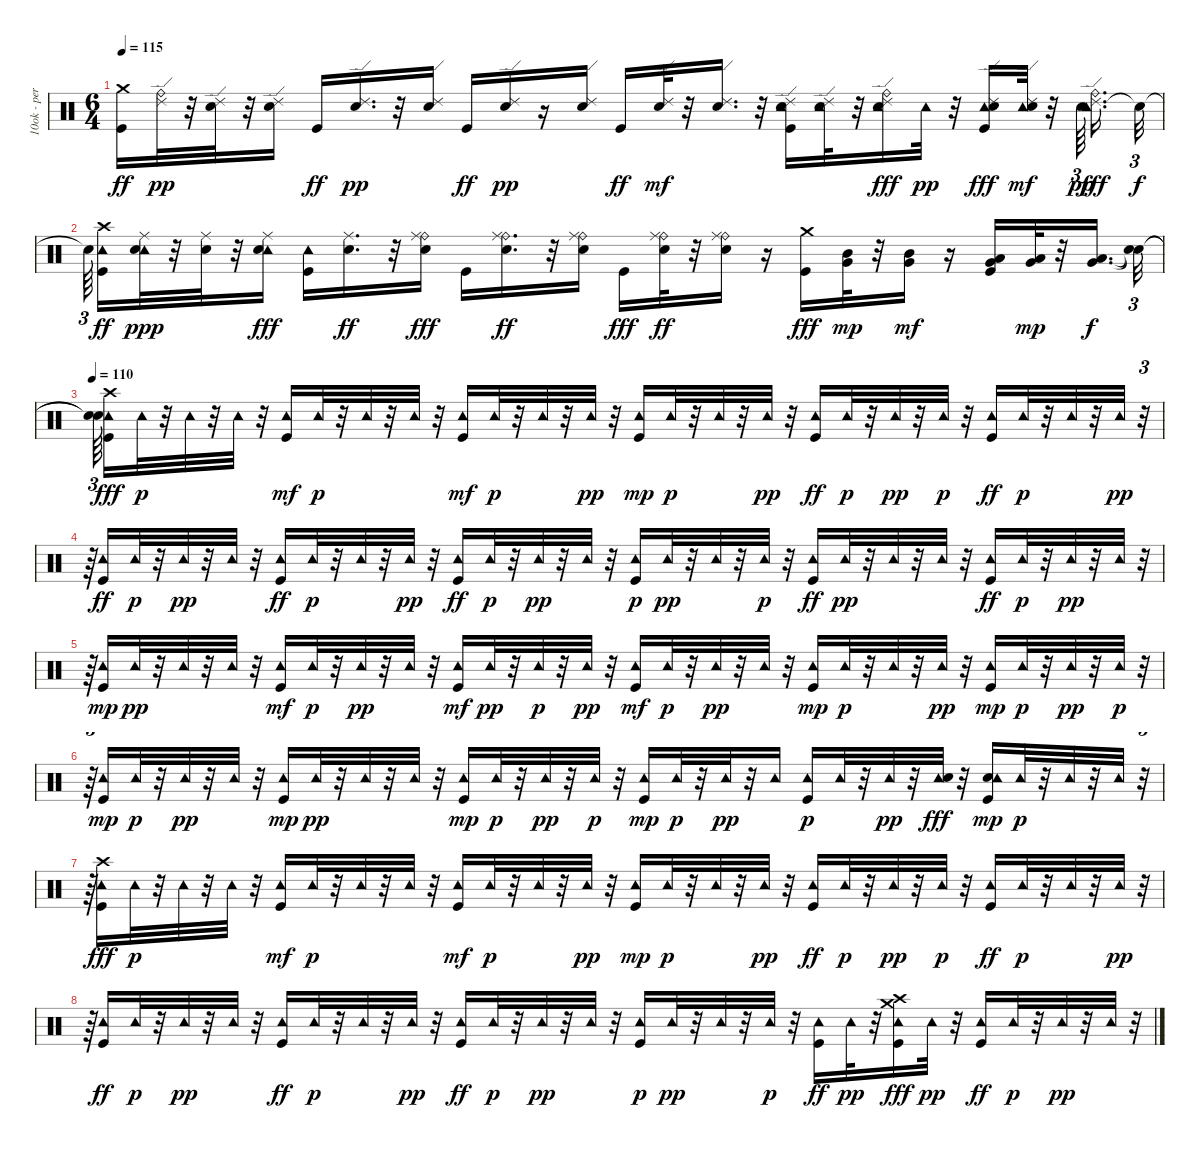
\track ("10ok - percussioni" "10ok - per") {instrument percussion}
\staff {score}
\articulation defaults
\ts (6 4)
\tempo 115
\clef neutral
\ks c
("Kick (hit)" "Crash medium (hit)").16{dy ff} ("Ride (bell)" "Ride (edge) 2").32{dy pp} r.32 ("Snare (hit) 2" "Ride (edge) 2").32 r.32 ("Snare (hit) 2" "Ride (edge) 2").16 "Kick (hit)".16{dy ff} ("Snare (hit) 2" "Ride (edge) 2").16{d dy pp} r.32 ("Snare (hit) 2" "Ride (edge) 2").16 "Kick (hit)".16{dy ff} ("Snare (hit) 2" "Ride (edge) 2").16{dy pp} r.16 ("Snare (hit) 2" "Ride (edge) 2").16 "Kick (hit)".16{dy ff} ("Snare (hit) 2" "Ride (edge) 2").32{dy mf} r.32 ("Snare (hit) 2" "Ride (edge) 2").16{d} r.32 ("Tambourine (hit)" "Snare (hit) 2" "Kick (hit)" "Ride (edge) 2").16 ("Tambourine (hit)" "Snare (hit) 2" "Ride (edge) 2").32 r.32 ("Tambourine (hit)" "Snare (hit) 2" "Ride (bell)" "Ride (edge) 2").16{dy fff} "Tambourine (hit)".32{dy pp} r.32 ("Tambourine (hit)" "Snare (hit) 2" "Kick (hit)" "Ride (edge) 2").16{dy fff} ("Tambourine (hit)" "Snare (hit) 2" "Ride (edge) 2").32{dy mf} r.32 "Snare (hit) 2".64{tu (3 2) dy pp beam splitsecondary} ("Tambourine (hit)" "Ride (bell)" "Ride (edge) 2").16{d dy fff} "Snare (hit)"{t}.32{tu (3 2) dy f} |
"Snare (hit)"{t}.64{tu (3 2) beam splitsecondary} ("Tambourine (hit)" "Kick (hit)" "Crash high (hit)").16{dy ff} ("Tambourine (hit)" "Ride (middle)" "Snare (hit) 2").32{dy ppp} r.32 ("Snare (hit) 2" "Ride (middle)").32 r.32 ("Tambourine (hit)" "Snare (hit) 2" "Ride (middle)").16{dy fff} ("Tambourine (hit)" "Kick (hit)").16 ("Snare (hit) 2" "Ride (middle)").16{d dy ff} r.32 ("Snare (hit) 2" "Ride (bell)" "Ride (middle)").16{dy fff} "Kick (hit)".16 ("Snare (hit) 2" "Ride (bell)" "Ride (middle)").16{d dy ff} r.32 ("Snare (hit) 2" "Ride (bell)" "Ride (middle)").16 "Kick (hit)".16{dy fff} ("Snare (hit) 2" "Ride (bell)" "Ride (middle)").32{dy ff} r.32 ("Snare (hit) 2" "Ride (bell)" "Ride (middle)").16 r.16 ("Kick (hit)" "Crash medium (hit)").16{dy fff} ("Mid Tom (hit)" "Very Low Tom (hit)").32{dy mp} r.32 ("Very Low Tom (hit)" "Mid Tom (hit)").16{dy mf} r.16 ("Kick (hit)" "Very Low Tom (hit)" "Low Tom (hit)").16 ("Very Low Tom (hit)" "Low Tom (hit)").32{dy mp} r.32 ("Very Low Tom (hit)" "Low Tom (hit)").16{d dy f} ("Snare (hit)"{t} "Snare (hit)"{t}).32{tu (3 2)} |
\tempo 110
("Snare (hit)"{t} "Snare (hit)"{t}).64{tu (3 2) beam splitsecondary} ("Tambourine (hit)" "Crash high (hit)" "Kick (hit)").16{dy fff} "Tambourine (hit)".32{dy p} r.32 "Tambourine (hit)".32 r.32 "Tambourine (hit)".32 r.32 ("Tambourine (hit)" "Kick (hit)").16{dy mf} "Tambourine (hit)".32{dy p} r.32 "Tambourine (hit)".32 r.32 "Tambourine (hit)".32 r.32 ("Tambourine (hit)" "Kick (hit)").16{dy mf} "Tambourine (hit)".32{dy p} r.32 "Tambourine (hit)".32 r.32 "Tambourine (hit)".32{dy pp} r.32 ("Tambourine (hit)" "Kick (hit)").16{dy mp} "Tambourine (hit)".32{dy p} r.32 "Tambourine (hit)".32 r.32 "Tambourine (hit)".32{dy pp} r.32 ("Tambourine (hit)" "Kick (hit)").16{dy ff} "Tambourine (hit)".32{dy p} r.32 "Tambourine (hit)".32{dy pp} r.32 "Tambourine (hit)".32{dy p} r.32 ("Tambourine (hit)" "Kick (hit)").16{dy ff} "Tambourine (hit)".32{dy p} r.32 "Tambourine (hit)".32 r.32 "Tambourine (hit)".32{dy pp} r.32{tu (3 2)} |
r.64{tu (3 2)} ("Tambourine (hit)" "Kick (hit)").16{dy ff} "Tambourine (hit)".32{dy p} r.32 "Tambourine (hit)".32{dy pp} r.32 "Tambourine (hit)".32 r.32 ("Tambourine (hit)" "Kick (hit)").16{dy ff} "Tambourine (hit)".32{dy p} r.32 "Tambourine (hit)".32 r.32 "Tambourine (hit)".32{dy pp} r.32 ("Tambourine (hit)" "Kick (hit)").16{dy ff} "Tambourine (hit)".32{dy p} r.32 "Tambourine (hit)".32{dy pp} r.32 "Tambourine (hit)".32 r.32 ("Tambourine (hit)" "Kick (hit)").16{dy p} "Tambourine (hit)".32{dy pp} r.32 "Tambourine (hit)".32 r.32 "Tambourine (hit)".32{dy p} r.32 ("Tambourine (hit)" "Kick (hit)").16{dy ff} "Tambourine (hit)".32{dy pp} r.32 "Tambourine (hit)".32 r.32 "Tambourine (hit)".32 r.32 ("Tambourine (hit)" "Kick (hit)").16{dy ff} "Tambourine (hit)".32{dy p} r.32 "Tambourine (hit)".32{dy pp} r.32 "Tambourine (hit)".32 r.32{tu (3 2)} |
r.64{tu (3 2)} ("Tambourine (hit)" "Kick (hit)").16{dy mp} "Tambourine (hit)".32{dy pp} r.32 "Tambourine (hit)".32 r.32 "Tambourine (hit)".32 r.32 ("Tambourine (hit)" "Kick (hit)").16{dy mf} "Tambourine (hit)".32{dy p} r.32 "Tambourine (hit)".32{dy pp} r.32 "Tambourine (hit)".32 r.32 ("Tambourine (hit)" "Kick (hit)").16{dy mf} "Tambourine (hit)".32{dy pp} r.32 "Tambourine (hit)".32{dy p} r.32 "Tambourine (hit)".32{dy pp} r.32 ("Tambourine (hit)" "Kick (hit)").16{dy mf} "Tambourine (hit)".32{dy p} r.32 "Tambourine (hit)".32{dy pp} r.32 "Tambourine (hit)".32 r.32 ("Tambourine (hit)" "Kick (hit)").16{dy mp} "Tambourine (hit)".32{dy p} r.32 "Tambourine (hit)".32 r.32 "Tambourine (hit)".32{dy pp} r.32 ("Tambourine (hit)" "Kick (hit)").16{dy mp} "Tambourine (hit)".32{dy p} r.32 "Tambourine (hit)".32{dy pp} r.32 "Tambourine (hit)".32{dy p} r.32{tu (3 2)} |
r.64{tu (3 2)} ("Tambourine (hit)" "Kick (hit)").16{dy mp} "Tambourine (hit)".32{dy p} r.32 "Tambourine (hit)".32{dy pp} r.32 "Tambourine (hit)".32 r.32 ("Tambourine (hit)" "Kick (hit)").16{dy mp} "Tambourine (hit)".32{dy pp} r.32 "Tambourine (hit)".32 r.32 "Tambourine (hit)".32 r.32 ("Tambourine (hit)" "Kick (hit)").16{dy mp} "Tambourine (hit)".32{dy p} r.32 "Tambourine (hit)".32{dy pp} r.32 "Tambourine (hit)".32{dy p} r.32 ("Tambourine (hit)" "Kick (hit)").16{dy mp} "Tambourine (hit)".32{dy p} r.32 "Tambourine (hit)".32{dy pp} r.32 "Tambourine (hit)".16 ("Tambourine (hit)" "Kick (hit)").16{dy p} "Tambourine (hit)".32 r.32 "Tambourine (hit)".32{dy pp} r.32 ("Tambourine (hit)" "Snare (hit) 2").32{dy fff} r.32 ("Snare (hit) 2" "Tambourine (hit)" "Kick (hit)").16{dy mp} "Tambourine (hit)".32{dy p} r.32 "Tambourine (hit)".32 r.32 "Tambourine (hit)".32 r.32{tu (3 2)} |
r.64{tu (3 2)} ("Tambourine (hit)" "Crash high (hit)" "Kick (hit)").16{dy fff} "Tambourine (hit)".32{dy p} r.32 "Tambourine (hit)".32 r.32 "Tambourine (hit)".32 r.32 ("Tambourine (hit)" "Kick (hit)").16{dy mf} "Tambourine (hit)".32{dy p} r.32 "Tambourine (hit)".32 r.32 "Tambourine (hit)".32 r.32 ("Tambourine (hit)" "Kick (hit)").16{dy mf} "Tambourine (hit)".32{dy p} r.32 "Tambourine (hit)".32 r.32 "Tambourine (hit)".32{dy pp} r.32 ("Tambourine (hit)" "Kick (hit)").16{dy mp} "Tambourine (hit)".32{dy p} r.32 "Tambourine (hit)".32 r.32 "Tambourine (hit)".32{dy pp} r.32 ("Tambourine (hit)" "Kick (hit)").16{dy ff} "Tambourine (hit)".32{dy p} r.32 "Tambourine (hit)".32{dy pp} r.32 "Tambourine (hit)".32{dy p} r.32 ("Tambourine (hit)" "Kick (hit)").16{dy ff} "Tambourine (hit)".32{dy p} r.32 "Tambourine (hit)".32 r.32 "Tambourine (hit)".32{dy pp} r.32{tu (3 2)} |
r.64{tu (3 2)} ("Tambourine (hit)" "Kick (hit)").16{dy ff} "Tambourine (hit)".32{dy p} r.32 "Tambourine (hit)".32{dy pp} r.32 "Tambourine (hit)".32 r.32 ("Tambourine (hit)" "Kick (hit)").16{dy ff} "Tambourine (hit)".32{dy p} r.32 "Tambourine (hit)".32 r.32 "Tambourine (hit)".32{dy pp} r.32 ("Tambourine (hit)" "Kick (hit)").16{dy ff} "Tambourine (hit)".32{dy p} r.32 "Tambourine (hit)".32{dy pp} r.32 "Tambourine (hit)".32 r.32 ("Tambourine (hit)" "Kick (hit)").16{dy p} "Tambourine (hit)".32{dy pp} r.32 "Tambourine (hit)".32 r.32 "Tambourine (hit)".32{dy p} r.32 ("Tambourine (hit)" "Kick (hit)").16{dy ff} "Tambourine (hit)".32{dy pp} r.32 ("Tambourine (hit)" "Crash medium (hit)" "Kick (hit)" "Crash high (hit)").16{dy fff} "Tambourine (hit)".32{dy pp} r.32 ("Tambourine (hit)" "Kick (hit)").16{dy ff} "Tambourine (hit)".32{dy p} r.32 "Tambourine (hit)".32{dy pp} r.32 "Tambourine (hit)".32 r.32{tu (3 2)}
